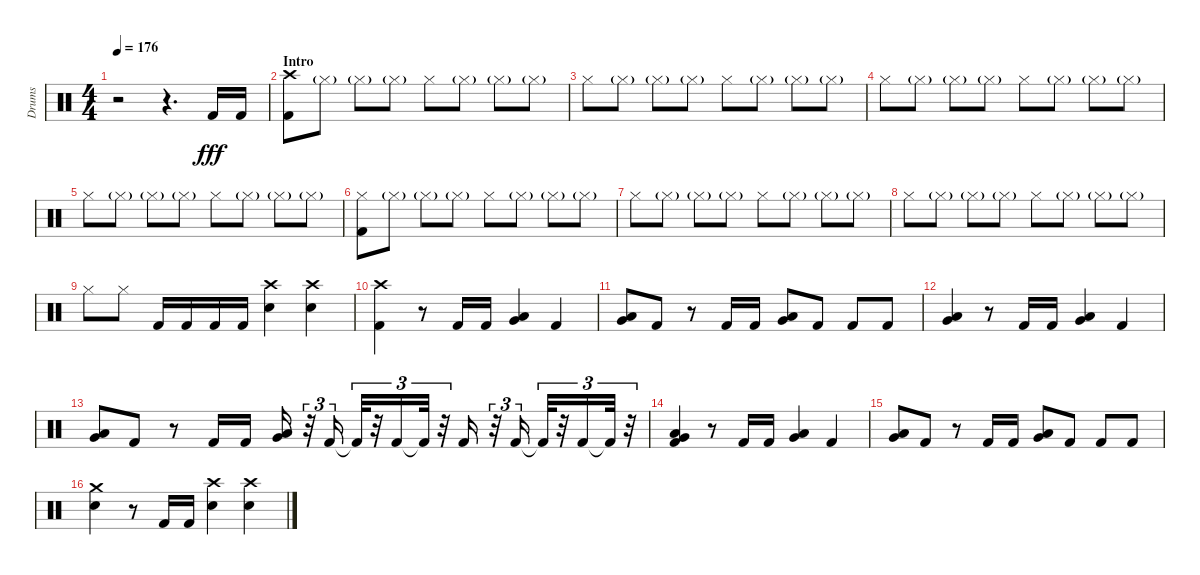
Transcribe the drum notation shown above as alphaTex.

\track ("Drums" "Drums") {instrument percussion}
\staff {score}
\articulation defaults
\ts (4 4)
\tempo 176
\clef neutral
\ks aminor
r.2{dy fff} r.4{d} "Kick (hit) 2".16 "Kick (hit) 2".16 |
\section ("" "Intro")
("Kick (hit) 2" "Crash high (hit)").8 "Hi-Hat (closed)"{g}.8 "Hi-Hat (closed)"{g}.8 "Hi-Hat (closed)"{g}.8 "Hi-Hat (closed)".8 "Hi-Hat (closed)"{g}.8 "Hi-Hat (closed)"{g}.8 "Hi-Hat (closed)"{g}.8 |
"Hi-Hat (closed)".8 "Hi-Hat (closed)"{g}.8 "Hi-Hat (closed)"{g}.8 "Hi-Hat (closed)"{g}.8 "Hi-Hat (closed)".8 "Hi-Hat (closed)"{g}.8 "Hi-Hat (closed)"{g}.8 "Hi-Hat (closed)"{g}.8 |
"Hi-Hat (closed)".8 "Hi-Hat (closed)"{g}.8 "Hi-Hat (closed)"{g}.8 "Hi-Hat (closed)"{g}.8 "Hi-Hat (closed)".8 "Hi-Hat (closed)"{g}.8 "Hi-Hat (closed)"{g}.8 "Hi-Hat (closed)"{g}.8 |
"Hi-Hat (closed)".8 "Hi-Hat (closed)"{g}.8 "Hi-Hat (closed)"{g}.8 "Hi-Hat (closed)"{g}.8 "Hi-Hat (closed)".8 "Hi-Hat (closed)"{g}.8 "Hi-Hat (closed)"{g}.8 "Hi-Hat (closed)"{g}.8 |
("Kick (hit) 2" "Hi-Hat (closed)").8 "Hi-Hat (closed)"{g}.8 "Hi-Hat (closed)"{g}.8 "Hi-Hat (closed)"{g}.8 "Hi-Hat (closed)".8 "Hi-Hat (closed)"{g}.8 "Hi-Hat (closed)"{g}.8 "Hi-Hat (closed)"{g}.8 |
"Hi-Hat (closed)".8 "Hi-Hat (closed)"{g}.8 "Hi-Hat (closed)"{g}.8 "Hi-Hat (closed)"{g}.8 "Hi-Hat (closed)".8 "Hi-Hat (closed)"{g}.8 "Hi-Hat (closed)"{g}.8 "Hi-Hat (closed)"{g}.8 |
"Hi-Hat (closed)".8 "Hi-Hat (closed)"{g}.8 "Hi-Hat (closed)"{g}.8 "Hi-Hat (closed)"{g}.8 "Hi-Hat (closed)".8 "Hi-Hat (closed)"{g}.8 "Hi-Hat (closed)"{g}.8 "Hi-Hat (closed)"{g}.8 |
"Hi-Hat (closed)".8 "Hi-Hat (closed)".8 "Kick (hit) 2".16 "Kick (hit) 2".16 "Kick (hit) 2".16 "Kick (hit) 2".16 ("Snare (hit) 2" "Crash high (hit)").4 ("Snare (hit) 2" "Crash high (hit)").4 |
("Kick (hit) 2" "Crash high (hit)").4 r.8 "Kick (hit) 2".16 "Kick (hit) 2".16 ("Low Floor Tom (hit)" "Very Low Tom (hit)").4 "Kick (hit) 2".4 |
("Low Floor Tom (hit)" "Very Low Tom (hit)").8 "Kick (hit) 2".8 r.8 "Kick (hit) 2".16 "Kick (hit) 2".16 ("Low Floor Tom (hit)" "Very Low Tom (hit)").8 "Kick (hit) 2".8 "Kick (hit) 2".8 "Kick (hit) 2".8 |
("Low Floor Tom (hit)" "Very Low Tom (hit)").4 r.8 "Kick (hit) 2".16 "Kick (hit) 2".16 ("Low Floor Tom (hit)" "Very Low Tom (hit)").4 "Kick (hit) 2".4 |
("Low Floor Tom (hit)" "Very Low Tom (hit)").8 "Kick (hit) 2".8 r.8 "Kick (hit) 2".16 "Kick (hit) 2".16 ("Low Floor Tom (hit)" "Very Low Tom (hit)").16 r.32{tu (3 2)} "Kick (hit) 2".16{tu (3 2)} "Kick (hit) 2"{t}.32{tu (3 2)} r.32{tu (3 2)} "Kick (hit) 2".16{tu (3 2)} "Kick (hit) 2"{t}.32{tu (3 2)} r.32{tu (3 2)} "Kick (hit) 2".16 r.32{tu (3 2)} "Kick (hit) 2".16{tu (3 2)} "Kick (hit) 2"{t}.32{tu (3 2)} r.32{tu (3 2)} "Kick (hit) 2".16{tu (3 2)} "Kick (hit) 2"{t}.32{tu (3 2)} r.32{tu (3 2)} |
("Low Floor Tom (hit)" "Kick (hit) 2" "Very Low Tom (hit)").4 r.8 "Kick (hit) 2".16 "Kick (hit) 2".16 ("Low Floor Tom (hit)" "Very Low Tom (hit)").4 "Kick (hit) 2".4 |
("Low Floor Tom (hit)" "Very Low Tom (hit)").8 "Kick (hit) 2".8 r.8 "Kick (hit) 2".16 "Kick (hit) 2".16 ("Low Floor Tom (hit)" "Very Low Tom (hit)").8 "Kick (hit) 2".8 "Kick (hit) 2".8 "Kick (hit) 2".8 |
("Snare (hit) 2" "Crash medium (hit)").4 r.8 "Kick (hit) 2".16 "Kick (hit) 2".16 ("Snare (hit) 2" "Crash high (hit)").4 ("Snare (hit) 2" "Crash high (hit)").4
